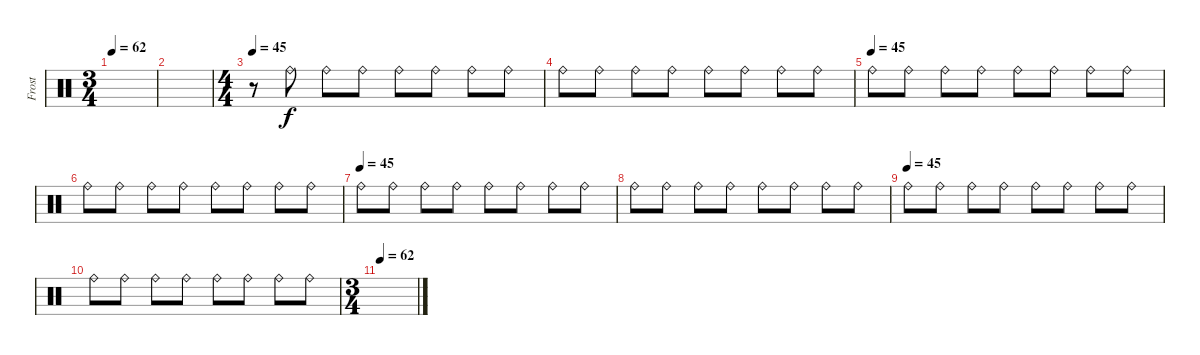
\track ("Frost" "Frost") {instrument percussion}
\staff {score}
\articulation defaults
\ts (3 4)
\tempo 62
\clef neutral
\ks c
|
|
\ts (4 4)
\tempo 45
r.8 "Ride (bell)".8 "Ride (bell)".8 "Ride (bell)".8 "Ride (bell)".8 "Ride (bell)".8 "Ride (bell)".8 "Ride (bell)".8 |
"Ride (bell)".8 "Ride (bell)".8 "Ride (bell)".8 "Ride (bell)".8 "Ride (bell)".8 "Ride (bell)".8 "Ride (bell)".8 "Ride (bell)".8 |
\tempo (45)
"Ride (bell)".8 "Ride (bell)".8 "Ride (bell)".8 "Ride (bell)".8 "Ride (bell)".8 "Ride (bell)".8 "Ride (bell)".8 "Ride (bell)".8 |
"Ride (bell)".8 "Ride (bell)".8 "Ride (bell)".8 "Ride (bell)".8 "Ride (bell)".8 "Ride (bell)".8 "Ride (bell)".8 "Ride (bell)".8 |
\tempo (45)
"Ride (bell)".8 "Ride (bell)".8 "Ride (bell)".8 "Ride (bell)".8 "Ride (bell)".8 "Ride (bell)".8 "Ride (bell)".8 "Ride (bell)".8 |
"Ride (bell)".8 "Ride (bell)".8 "Ride (bell)".8 "Ride (bell)".8 "Ride (bell)".8 "Ride (bell)".8 "Ride (bell)".8 "Ride (bell)".8 |
\tempo (45)
"Ride (bell)".8 "Ride (bell)".8 "Ride (bell)".8 "Ride (bell)".8 "Ride (bell)".8 "Ride (bell)".8 "Ride (bell)".8 "Ride (bell)".8 |
"Ride (bell)".8 "Ride (bell)".8 "Ride (bell)".8 "Ride (bell)".8 "Ride (bell)".8 "Ride (bell)".8 "Ride (bell)".8 "Ride (bell)".8 |
\ts (3 4)
\tempo 62
